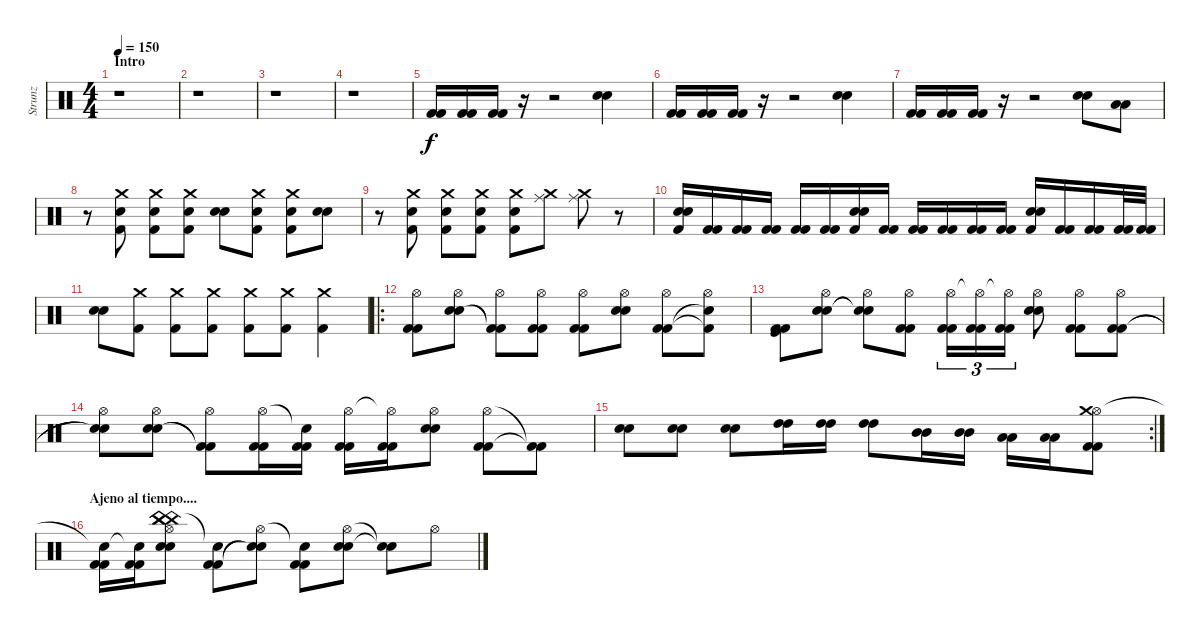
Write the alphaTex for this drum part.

\track ("Strunz" "Strunz") {instrument percussion}
\staff {score}
\articulation defaults
\ts (4 4)
\section ("" "Intro")
\tempo 150
\clef neutral
\ks c
r.1{dy f} |
r.1 |
r.1 |
r.1 |
("Kick (hit) 2" "Kick (hit) 2").16 ("Kick (hit) 2" "Kick (hit) 2").16 ("Kick (hit) 2" "Kick (hit) 2").16 r.16 r.2 ("Snare (hit) 2" "Snare (hit) 2").4 |
("Kick (hit) 2" "Kick (hit) 2").16 ("Kick (hit) 2" "Kick (hit) 2").16 ("Kick (hit) 2" "Kick (hit) 2").16 r.16 r.2 ("Snare (hit) 2" "Snare (hit) 2").4 |
("Kick (hit) 2" "Kick (hit) 2").16 ("Kick (hit) 2" "Kick (hit) 2").16 ("Kick (hit) 2" "Kick (hit) 2").16 r.16 r.2 ("Snare (hit) 2" "Snare (hit) 2").8 ("Low Tom (hit)" "Low Tom (hit)").8 |
r.8 ("Kick (hit) 2" "Crash medium (hit)" "Snare (hit) 2").8 ("Kick (hit) 2" "Crash medium (hit)" "Snare (hit) 2").8 ("Kick (hit) 2" "Crash medium (hit)" "Snare (hit) 2").8 ("Snare (hit) 2" "Snare (hit) 2").8 ("Kick (hit) 2" "Crash medium (hit)" "Snare (hit) 2").8 ("Kick (hit) 2" "Crash medium (hit)" "Snare (hit) 2").8 ("Snare (hit) 2" "Snare (hit) 2").8 |
r.8 ("Kick (hit) 2" "Snare (hit) 2" "Crash medium (hit)").8 ("Kick (hit) 2" "Snare (hit) 2" "Crash medium (hit)").8 ("Kick (hit) 2" "Snare (hit) 2" "Crash medium (hit)").8 ("Kick (hit) 2" "Snare (hit) 2" "Crash medium (hit)").8 ("Crash medium (hit)" "Ride (middle)").8 ("Crash medium (hit)" "Ride (middle)").8 r.8 |
("Kick (hit) 2" "Snare (hit) 2" "Snare (hit) 2").16 ("Kick (hit) 2" "Kick (hit) 2").16 ("Kick (hit) 2" "Kick (hit) 2").16 ("Kick (hit) 2" "Kick (hit) 2").16 ("Kick (hit) 2" "Kick (hit) 2").16 ("Kick (hit) 2" "Kick (hit) 2").16 ("Kick (hit) 2" "Snare (hit) 2" "Snare (hit) 2").16 ("Kick (hit) 2" "Kick (hit) 2").16 ("Kick (hit) 2" "Kick (hit) 2").16 ("Kick (hit) 2" "Kick (hit) 2").16 ("Kick (hit) 2" "Kick (hit) 2").16 ("Kick (hit) 2" "Kick (hit) 2").16 ("Kick (hit) 2" "Snare (hit) 2" "Snare (hit) 2").16 ("Kick (hit) 2" "Kick (hit) 2").16 ("Kick (hit) 2" "Kick (hit) 2").16 ("Kick (hit) 2" "Kick (hit) 2").32 ("Kick (hit) 2" "Kick (hit) 2").32 |
("Snare (hit) 2" "Snare (hit) 2").8 ("Kick (hit) 2" "Crash medium (hit)").8 ("Kick (hit) 2" "Crash medium (hit)").8 ("Kick (hit) 2" "Crash medium (hit)").8 ("Kick (hit) 2" "Crash medium (hit)").8 ("Kick (hit) 2" "Crash medium (hit)").8 ("Kick (hit) 2" "Crash medium (hit)").4 |
\ro
("Hi-Hat (open)" "Kick (hit) 2" "Kick (hit) 2").8 ("Hi-Hat (open)" "Snare (hit) 2" "Snare (hit) 2").8 ("Hi-Hat (open)" "Kick (hit) 2"{t} "Kick (hit) 2"{t}).8 ("Hi-Hat (open)" "Kick (hit) 2" "Kick (hit) 2").8 ("Hi-Hat (open)" "Kick (hit) 2" "Kick (hit) 2").8 ("Hi-Hat (open)" "Snare (hit) 2" "Snare (hit) 2").8 ("Hi-Hat (open)" "Kick (hit) 2" "Kick (hit) 2").8 ("Hi-Hat (open)" "Kick (hit) 2"{t} "Snare (hit)"{t}).8 |
("Kick (hit)" "Kick (hit) 2" "Kick (hit) 2").8 ("Hi-Hat (open)" "Snare (hit) 2" "Snare (hit) 2").8 ("Hi-Hat (open)" "Snare (hit)"{t} "Snare (hit)"{t}).8 ("Hi-Hat (open)" "Kick (hit) 2" "Kick (hit) 2").8 ("Hi-Hat (open)" "Kick (hit) 2" "Kick (hit) 2").16{tu (3 2)} ("Hi-Hat (open)"{t} "Kick (hit) 2" "Kick (hit) 2").16{tu (3 2)} ("Hi-Hat (open)"{t} "Kick (hit) 2" "Kick (hit) 2").16{tu (3 2)} ("Hi-Hat (open)" "Snare (hit) 2" "Snare (hit) 2").8 ("Hi-Hat (open)" "Kick (hit) 2" "Kick (hit) 2").8 ("Hi-Hat (open)" "Kick (hit) 2" "Kick (hit) 2").8 |
("Hi-Hat (open)" "Snare (hit) 2"{t} "Snare (hit) 2"{t}).8 ("Hi-Hat (open)" "Snare (hit) 2" "Snare (hit) 2").8 ("Hi-Hat (open)" "Kick (hit) 2"{t} "Kick (hit) 2"{t}).8 ("Hi-Hat (open)" "Kick (hit) 2" "Kick (hit) 2").16 ("Snare (hit)"{t} "Kick (hit) 2" "Kick (hit) 2").16 ("Hi-Hat (open)" "Kick (hit) 2" "Kick (hit) 2").16 ("Hi-Hat (open)"{t} "Kick (hit) 2" "Kick (hit) 2").16 ("Hi-Hat (open)" "Snare (hit) 2" "Snare (hit) 2").8 ("Hi-Hat (open)" "Kick (hit) 2" "Kick (hit) 2").8 ("Kick (hit) 2"{t} "Kick (hit) 2"{t}).8 |
\rc 2
("Snare (hit) 2" "Snare (hit) 2").8 ("Snare (hit) 2" "Snare (hit) 2").8 ("Snare (hit) 2" "Snare (hit) 2").8 ("High Tom (hit)" "High Tom (hit)").16 ("High Tom (hit)" "High Tom (hit)").16 ("High Tom (hit)" "High Tom (hit)").8 ("Mid Tom (hit)" "Mid Tom (hit)").16 ("Mid Tom (hit)" "Mid Tom (hit)").16 ("Low Tom (hit)" "Low Tom (hit)").16 ("Low Tom (hit)" "Low Tom (hit)").16 ("Hi-Hat (open)" "Crash medium (hit)" "Kick (hit) 2" "Kick (hit) 2").8 |
\section ("" "Ajeno al tiempo....")
("Snare (hit)"{t} "Kick (hit) 2" "Kick (hit) 2").16 ("Snare (hit)"{t} "Kick (hit) 2" "Kick (hit) 2").16 ("China (hit)" "Hi-Hat (open)" "China (hit)" "Snare (hit) 2" "Snare (hit) 2" "China (hit)").8 ("Snare (hit)"{t} "Kick (hit) 2" "Kick (hit) 2").8 ("Hi-Hat (open)" "Snare (hit)"{t} "Snare (hit)"{t}).8 ("Snare (hit)"{t} "Kick (hit) 2" "Kick (hit) 2").8 ("Hi-Hat (open)" "Snare (hit) 2" "Snare (hit) 2").8 ("Snare (hit)"{t} "Snare (hit)"{t}).8 "Hi-Hat (open)".8
